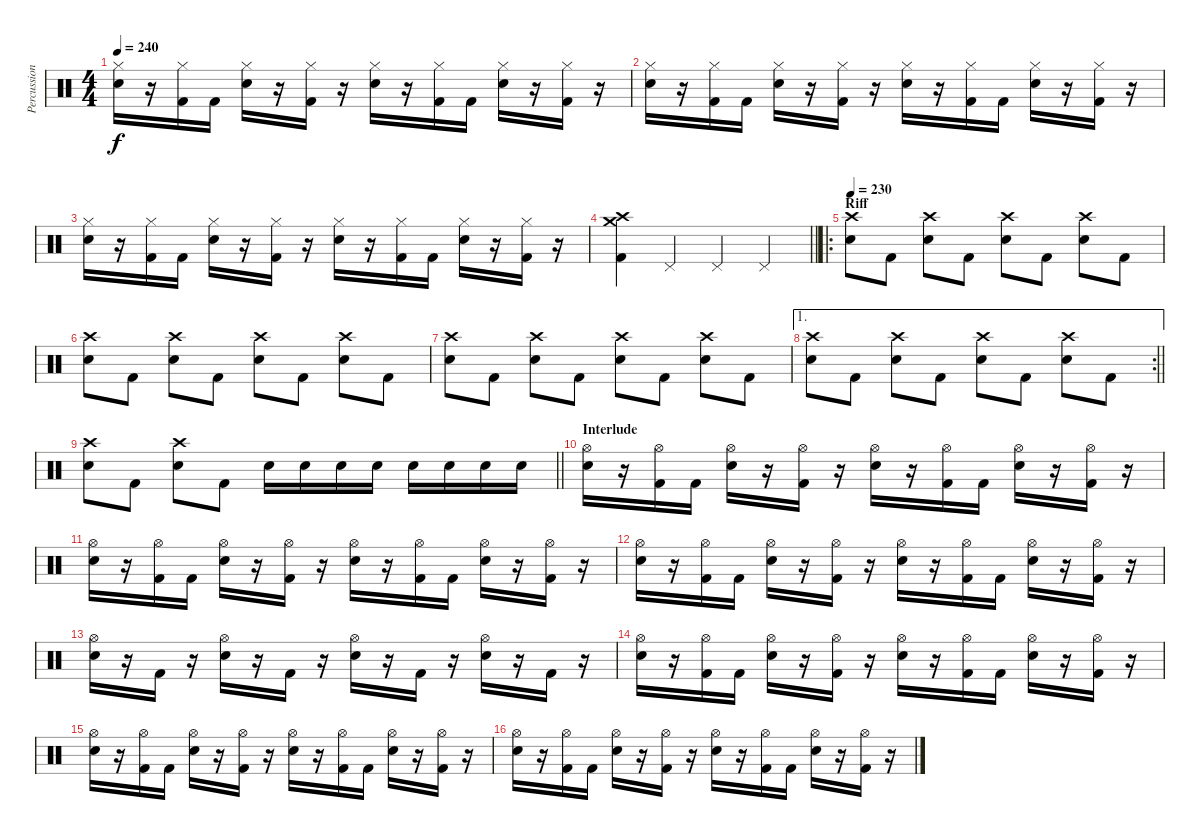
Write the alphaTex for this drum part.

\track ("Percussion" "Percussion") {instrument percussion}
\staff {score}
\articulation defaults
\ts (4 4)
\tempo 240
\clef neutral
\ks c
("Hi-Hat (closed)" "Electric Snare (hit)").16{dy f} r.16 ("Hi-Hat (closed)" "Kick (hit) 2").16 "Kick (hit) 2".16 ("Hi-Hat (closed)" "Electric Snare (hit)").16 r.16 ("Hi-Hat (closed)" "Kick (hit) 2").16 r.16 ("Hi-Hat (closed)" "Electric Snare (hit)").16 r.16 ("Hi-Hat (closed)" "Kick (hit) 2").16 "Kick (hit) 2".16 ("Hi-Hat (closed)" "Electric Snare (hit)").16 r.16 ("Hi-Hat (closed)" "Kick (hit) 2").16 r.16 |
("Hi-Hat (closed)" "Electric Snare (hit)").16 r.16 ("Hi-Hat (closed)" "Kick (hit) 2").16 "Kick (hit) 2".16 ("Hi-Hat (closed)" "Electric Snare (hit)").16 r.16 ("Hi-Hat (closed)" "Kick (hit) 2").16 r.16 ("Hi-Hat (closed)" "Electric Snare (hit)").16 r.16 ("Hi-Hat (closed)" "Kick (hit) 2").16 "Kick (hit) 2".16 ("Hi-Hat (closed)" "Electric Snare (hit)").16 r.16 ("Hi-Hat (closed)" "Kick (hit) 2").16 r.16 |
("Hi-Hat (closed)" "Electric Snare (hit)").16 r.16 ("Hi-Hat (closed)" "Kick (hit) 2").16 "Kick (hit) 2".16 ("Hi-Hat (closed)" "Electric Snare (hit)").16 r.16 ("Hi-Hat (closed)" "Kick (hit) 2").16 r.16 ("Hi-Hat (closed)" "Electric Snare (hit)").16 r.16 ("Hi-Hat (closed)" "Kick (hit) 2").16 "Kick (hit) 2".16 ("Hi-Hat (closed)" "Electric Snare (hit)").16 r.16 ("Hi-Hat (closed)" "Kick (hit) 2").16 r.16 |
\barLineRight lightlight
("Crash high (hit)" "Crash medium (hit)" "Kick (hit) 2").4 "Pedal Hi-Hat (hit)".4 "Pedal Hi-Hat (hit)".4 "Pedal Hi-Hat (hit)".4 |
\ro
\section ("" "Riff")
\tempo 230
("Crash high (hit)" "Electric Snare (hit)").8 "Kick (hit) 2".8 ("Crash high (hit)" "Electric Snare (hit)").8 "Kick (hit) 2".8 ("Crash high (hit)" "Electric Snare (hit)").8 "Kick (hit) 2".8 ("Crash high (hit)" "Electric Snare (hit)").8 "Kick (hit) 2".8 |
("Crash high (hit)" "Electric Snare (hit)").8 "Kick (hit) 2".8 ("Crash high (hit)" "Electric Snare (hit)").8 "Kick (hit) 2".8 ("Crash high (hit)" "Electric Snare (hit)").8 "Kick (hit) 2".8 ("Crash high (hit)" "Electric Snare (hit)").8 "Kick (hit) 2".8 |
("Crash high (hit)" "Electric Snare (hit)").8 "Kick (hit) 2".8 ("Crash high (hit)" "Electric Snare (hit)").8 "Kick (hit) 2".8 ("Crash high (hit)" "Electric Snare (hit)").8 "Kick (hit) 2".8 ("Crash high (hit)" "Electric Snare (hit)").8 "Kick (hit) 2".8 |
\ae 1
\rc 2
\barLineRight lightlight
("Crash high (hit)" "Electric Snare (hit)").8 "Kick (hit) 2".8 ("Crash high (hit)" "Electric Snare (hit)").8 "Kick (hit) 2".8 ("Crash high (hit)" "Electric Snare (hit)").8 "Kick (hit) 2".8 ("Crash high (hit)" "Electric Snare (hit)").8 "Kick (hit) 2".8 |
\barLineRight lightlight
("Crash high (hit)" "Electric Snare (hit)").8 "Kick (hit) 2".8 ("Crash high (hit)" "Electric Snare (hit)").8 "Kick (hit) 2".8 "Electric Snare (hit)".16 "Electric Snare (hit)".16 "Electric Snare (hit)".16 "Electric Snare (hit)".16 "Electric Snare (hit)".16 "Electric Snare (hit)".16 "Electric Snare (hit)".16 "Electric Snare (hit)".16 |
\section ("" "Interlude")
("Hi-Hat (open)" "Electric Snare (hit)").16 r.16 ("Hi-Hat (open)" "Kick (hit) 2").16 "Kick (hit) 2".16 ("Hi-Hat (open)" "Electric Snare (hit)").16 r.16 ("Hi-Hat (open)" "Kick (hit) 2").16 r.16 ("Hi-Hat (open)" "Electric Snare (hit)").16 r.16 ("Hi-Hat (open)" "Kick (hit) 2").16 "Kick (hit) 2".16 ("Hi-Hat (open)" "Electric Snare (hit)").16 r.16 ("Hi-Hat (open)" "Kick (hit) 2").16 r.16 |
("Hi-Hat (open)" "Electric Snare (hit)").16 r.16 ("Hi-Hat (open)" "Kick (hit) 2").16 "Kick (hit) 2".16 ("Hi-Hat (open)" "Electric Snare (hit)").16 r.16 ("Hi-Hat (open)" "Kick (hit) 2").16 r.16 ("Hi-Hat (open)" "Electric Snare (hit)").16 r.16 ("Hi-Hat (open)" "Kick (hit) 2").16 "Kick (hit) 2".16 ("Hi-Hat (open)" "Electric Snare (hit)").16 r.16 ("Hi-Hat (open)" "Kick (hit) 2").16 r.16 |
("Hi-Hat (open)" "Electric Snare (hit)").16 r.16 ("Hi-Hat (open)" "Kick (hit) 2").16 "Kick (hit) 2".16 ("Hi-Hat (open)" "Electric Snare (hit)").16 r.16 ("Hi-Hat (open)" "Kick (hit) 2").16 r.16 ("Hi-Hat (open)" "Electric Snare (hit)").16 r.16 ("Hi-Hat (open)" "Kick (hit) 2").16 "Kick (hit) 2".16 ("Hi-Hat (open)" "Electric Snare (hit)").16 r.16 ("Hi-Hat (open)" "Kick (hit) 2").16 r.16 |
("Hi-Hat (open)" "Electric Snare (hit)").16 r.16 "Kick (hit) 2".16 r.16 ("Hi-Hat (open)" "Electric Snare (hit)").16 r.16 "Kick (hit) 2".16 r.16 ("Hi-Hat (open)" "Electric Snare (hit)").16 r.16 "Kick (hit) 2".16 r.16 ("Hi-Hat (open)" "Electric Snare (hit)").16 r.16 "Kick (hit) 2".16 r.16 |
("Hi-Hat (open)" "Electric Snare (hit)").16 r.16 ("Hi-Hat (open)" "Kick (hit) 2").16 "Kick (hit) 2".16 ("Hi-Hat (open)" "Electric Snare (hit)").16 r.16 ("Hi-Hat (open)" "Kick (hit) 2").16 r.16 ("Hi-Hat (open)" "Electric Snare (hit)").16 r.16 ("Hi-Hat (open)" "Kick (hit) 2").16 "Kick (hit) 2".16 ("Hi-Hat (open)" "Electric Snare (hit)").16 r.16 ("Hi-Hat (open)" "Kick (hit) 2").16 r.16 |
("Hi-Hat (open)" "Electric Snare (hit)").16 r.16 ("Hi-Hat (open)" "Kick (hit) 2").16 "Kick (hit) 2".16 ("Hi-Hat (open)" "Electric Snare (hit)").16 r.16 ("Hi-Hat (open)" "Kick (hit) 2").16 r.16 ("Hi-Hat (open)" "Electric Snare (hit)").16 r.16 ("Hi-Hat (open)" "Kick (hit) 2").16 "Kick (hit) 2".16 ("Hi-Hat (open)" "Electric Snare (hit)").16 r.16 ("Hi-Hat (open)" "Kick (hit) 2").16 r.16 |
("Hi-Hat (open)" "Electric Snare (hit)").16 r.16 ("Hi-Hat (open)" "Kick (hit) 2").16 "Kick (hit) 2".16 ("Hi-Hat (open)" "Electric Snare (hit)").16 r.16 ("Hi-Hat (open)" "Kick (hit) 2").16 r.16 ("Hi-Hat (open)" "Electric Snare (hit)").16 r.16 ("Hi-Hat (open)" "Kick (hit) 2").16 "Kick (hit) 2".16 ("Hi-Hat (open)" "Electric Snare (hit)").16 r.16 ("Hi-Hat (open)" "Kick (hit) 2").16 r.16
